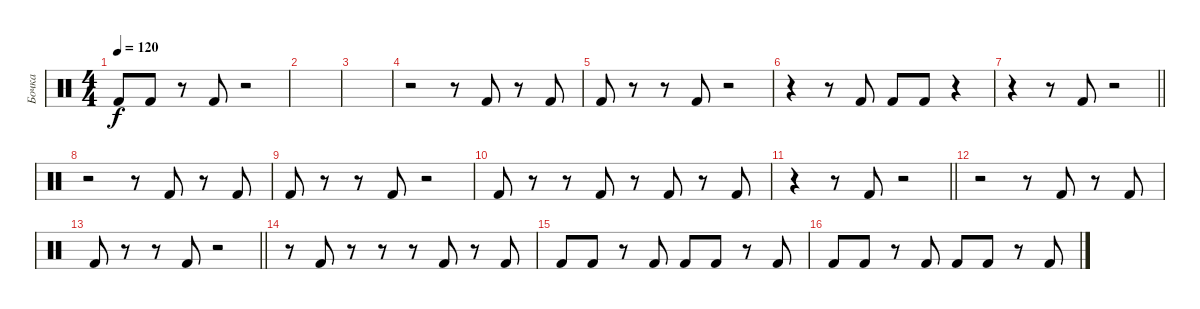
\track ("Бочка" "Бочка") {instrument percussion}
\staff {score}
\articulation defaults
\ts (4 4)
\tempo 120
\clef neutral
\ks c "Kick (hit) 2".8{dy f} "Kick (hit) 2".8
r.8 "Kick (hit) 2".8 r.2 |
|
|
r.2 r.8 "Kick (hit) 2".8 r.8 "Kick (hit) 2".8 |
"Kick (hit) 2".8 r.8 r.8 "Kick (hit) 2".8 r.2 |
r.4 r.8 "Kick (hit) 2".8 "Kick (hit) 2".8 "Kick (hit) 2".8 r.4 |
\barLineRight lightlight
r.4 r.8 "Kick (hit) 2".8 r.2 |
r.2 r.8 "Kick (hit) 2".8 r.8 "Kick (hit) 2".8 |
"Kick (hit) 2".8 r.8 r.8 "Kick (hit) 2".8 r.2 |
"Kick (hit) 2".8 r.8 r.8 "Kick (hit) 2".8 r.8 "Kick (hit) 2".8 r.8 "Kick (hit) 2".8 |
\barLineRight lightlight
r.4 r.8 "Kick (hit) 2".8 r.2 |
r.2 r.8 "Kick (hit) 2".8 r.8 "Kick (hit) 2".8 |
\barLineRight lightlight "Kick (hit) 2".8
r.8 r.8 "Kick (hit) 2".8 r.2 |
r.8 "Kick (hit) 2".8 r.8 r.8 r.8 "Kick (hit) 2".8 r.8 "Kick (hit) 2".8 |
"Kick (hit) 2".8 "Kick (hit) 2".8 r.8 "Kick (hit) 2".8 "Kick (hit) 2".8 "Kick (hit) 2".8 r.8 "Kick (hit) 2".8 |
"Kick (hit) 2".8 "Kick (hit) 2".8 r.8 "Kick (hit) 2".8 "Kick (hit) 2".8 "Kick (hit) 2".8 r.8 "Kick (hit) 2".8
